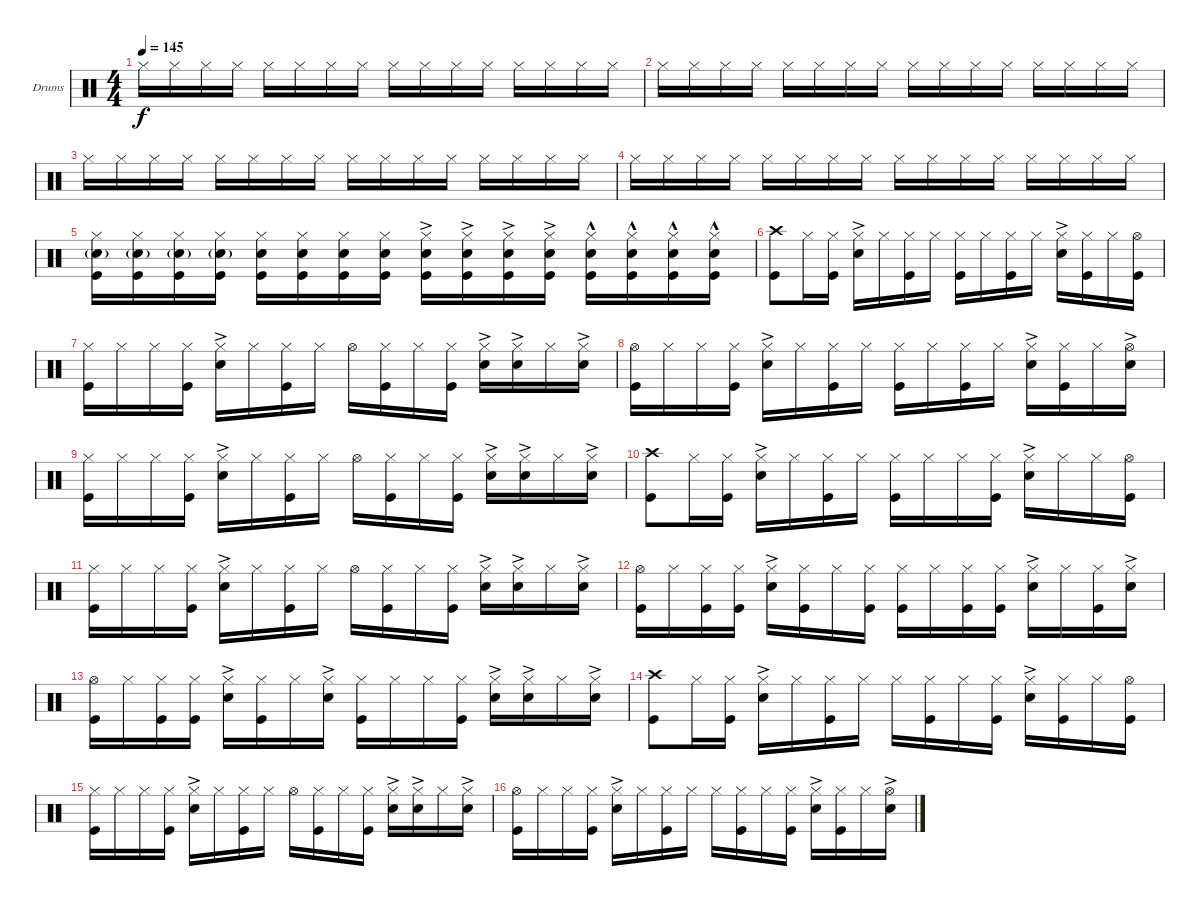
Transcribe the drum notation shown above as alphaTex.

\defaultSystemsLayout 4
\bracketExtendMode groupsimilarinstruments
\firstSystemTrackNameOrientation horizontal
\otherSystemsTrackNameOrientation horizontal
\track ("Drumkit" "Drums") {instrument percussion}
\staff {score}
\articulation defaults
\ts (4 4)
\tempo 145
\clef neutral
\ks c "Hi-Hat (closed)".16{dy f} "Hi-Hat (closed)".16 "Hi-Hat (closed)".16 "Hi-Hat (closed)".16 "Hi-Hat (closed)".16 "Hi-Hat (closed)".16 "Hi-Hat (closed)".16 "Hi-Hat (closed)".16 "Hi-Hat (closed)".16 "Hi-Hat (closed)".16 "Hi-Hat (closed)".16 "Hi-Hat (closed)".16 "Hi-Hat (closed)".16 "Hi-Hat (closed)".16 "Hi-Hat (closed)".16 "Hi-Hat (closed)".16
|
"Hi-Hat (closed)".16 "Hi-Hat (closed)".16 "Hi-Hat (closed)".16 "Hi-Hat (closed)".16 "Hi-Hat (closed)".16 "Hi-Hat (closed)".16 "Hi-Hat (closed)".16 "Hi-Hat (closed)".16 "Hi-Hat (closed)".16 "Hi-Hat (closed)".16 "Hi-Hat (closed)".16 "Hi-Hat (closed)".16 "Hi-Hat (closed)".16 "Hi-Hat (closed)".16 "Hi-Hat (closed)".16 "Hi-Hat (closed)".16 |
"Hi-Hat (closed)".16 "Hi-Hat (closed)".16 "Hi-Hat (closed)".16 "Hi-Hat (closed)".16 "Hi-Hat (closed)".16 "Hi-Hat (closed)".16 "Hi-Hat (closed)".16 "Hi-Hat (closed)".16 "Hi-Hat (closed)".16 "Hi-Hat (closed)".16 "Hi-Hat (closed)".16 "Hi-Hat (closed)".16 "Hi-Hat (closed)".16 "Hi-Hat (closed)".16 "Hi-Hat (closed)".16 "Hi-Hat (closed)".16 |
"Hi-Hat (closed)".16 "Hi-Hat (closed)".16 "Hi-Hat (closed)".16 "Hi-Hat (closed)".16 "Hi-Hat (closed)".16 "Hi-Hat (closed)".16 "Hi-Hat (closed)".16 "Hi-Hat (closed)".16 "Hi-Hat (closed)".16 "Hi-Hat (closed)".16 "Hi-Hat (closed)".16 "Hi-Hat (closed)".16 "Hi-Hat (closed)".16 "Hi-Hat (closed)".16 "Hi-Hat (closed)".16 "Hi-Hat (closed)".16 |
("Hi-Hat (closed)" "Kick (hit)" "Snare (hit) 2"{g}).16 ("Hi-Hat (closed)" "Kick (hit)" "Snare (hit) 2"{g}).16 ("Hi-Hat (closed)" "Kick (hit)" "Snare (hit) 2"{g}).16 ("Hi-Hat (closed)" "Kick (hit)" "Snare (hit) 2"{g}).16 ("Hi-Hat (closed)" "Kick (hit)" "Snare (hit) 2").16 ("Hi-Hat (closed)" "Kick (hit)" "Snare (hit) 2").16 ("Hi-Hat (closed)" "Kick (hit)" "Snare (hit) 2").16 ("Hi-Hat (closed)" "Kick (hit)" "Snare (hit) 2").16 ("Hi-Hat (closed)" "Kick (hit)" "Snare (hit) 2"{ac}).16 ("Hi-Hat (closed)" "Kick (hit)" "Snare (hit) 2"{ac}).16 ("Hi-Hat (closed)" "Kick (hit)" "Snare (hit) 2"{ac}).16 ("Hi-Hat (closed)" "Kick (hit)" "Snare (hit) 2"{ac}).16 ("Hi-Hat (closed)" "Kick (hit)" "Snare (hit) 2"{hac}).16 ("Hi-Hat (closed)" "Kick (hit)" "Snare (hit) 2"{hac}).16 ("Hi-Hat (closed)" "Kick (hit)" "Snare (hit) 2"{hac}).16 ("Hi-Hat (closed)" "Kick (hit)" "Snare (hit) 2"{hac}).16 |
("Kick (hit)" "Crash high (hit)").8 "Hi-Hat (closed)".16 ("Kick (hit)" "Hi-Hat (closed)").16 ("Snare (hit) 2"{ac} "Hi-Hat (closed)").16 "Hi-Hat (closed)".16 ("Hi-Hat (closed)" "Kick (hit)").16 "Hi-Hat (closed)".16 ("Hi-Hat (closed)" "Kick (hit)").16 "Hi-Hat (closed)".16 ("Hi-Hat (closed)" "Kick (hit)").16 "Hi-Hat (closed)".16 ("Hi-Hat (closed)" "Snare (hit) 2"{ac}).16 ("Hi-Hat (closed)" "Kick (hit)").16 "Hi-Hat (closed)".16 ("Hi-Hat (open)" "Kick (hit)").16 |
("Kick (hit)" "Hi-Hat (closed)").16 "Hi-Hat (closed)".16 "Hi-Hat (closed)".16 ("Kick (hit)" "Hi-Hat (closed)").16 ("Snare (hit) 2"{ac} "Hi-Hat (closed)").16 "Hi-Hat (closed)".16 ("Hi-Hat (closed)" "Kick (hit)").16 "Hi-Hat (closed)".16 "Hi-Hat (open)".16 ("Hi-Hat (closed)" "Kick (hit)").16 "Hi-Hat (closed)".16 ("Hi-Hat (closed)" "Kick (hit)").16 ("Hi-Hat (closed)" "Snare (hit) 2"{ac}).16 ("Hi-Hat (closed)" "Snare (hit) 2"{ac}).16 "Hi-Hat (closed)".16 ("Hi-Hat (closed)" "Snare (hit) 2"{ac}).16 |
("Kick (hit)" "Hi-Hat (open)").16 "Hi-Hat (closed)".16 "Hi-Hat (closed)".16 ("Kick (hit)" "Hi-Hat (closed)").16 ("Snare (hit) 2"{ac} "Hi-Hat (closed)").16 "Hi-Hat (closed)".16 ("Hi-Hat (closed)" "Kick (hit)").16 "Hi-Hat (closed)".16 ("Hi-Hat (closed)" "Kick (hit)").16 "Hi-Hat (closed)".16 ("Hi-Hat (closed)" "Kick (hit)").16 "Hi-Hat (closed)".16 ("Hi-Hat (closed)" "Snare (hit) 2"{ac}).16 ("Hi-Hat (closed)" "Kick (hit)").16 "Hi-Hat (closed)".16 ("Hi-Hat (open)" "Snare (hit) 2"{ac}).16 |
("Kick (hit)" "Hi-Hat (closed)").16 "Hi-Hat (closed)".16 "Hi-Hat (closed)".16 ("Kick (hit)" "Hi-Hat (closed)").16 ("Snare (hit) 2"{ac} "Hi-Hat (closed)").16 "Hi-Hat (closed)".16 ("Hi-Hat (closed)" "Kick (hit)").16 "Hi-Hat (closed)".16 "Hi-Hat (open)".16 ("Hi-Hat (closed)" "Kick (hit)").16 "Hi-Hat (closed)".16 ("Hi-Hat (closed)" "Kick (hit)").16 ("Hi-Hat (closed)" "Snare (hit) 2"{ac}).16 ("Hi-Hat (closed)" "Snare (hit) 2"{ac}).16 "Hi-Hat (closed)".16 ("Hi-Hat (closed)" "Snare (hit) 2"{ac}).16 |
("Kick (hit)" "Crash high (hit)").8 "Hi-Hat (closed)".16 ("Kick (hit)" "Hi-Hat (closed)").16 ("Snare (hit) 2"{ac} "Hi-Hat (closed)").16 "Hi-Hat (closed)".16 ("Hi-Hat (closed)" "Kick (hit)").16 "Hi-Hat (closed)".16 ("Hi-Hat (closed)" "Kick (hit)").16 "Hi-Hat (closed)".16 "Hi-Hat (closed)".16 ("Kick (hit)" "Hi-Hat (closed)").16 ("Hi-Hat (closed)" "Snare (hit) 2"{ac}).16 "Hi-Hat (closed)".16 "Hi-Hat (closed)".16 ("Hi-Hat (open)" "Kick (hit)").16 |
("Kick (hit)" "Hi-Hat (closed)").16 "Hi-Hat (closed)".16 "Hi-Hat (closed)".16 ("Kick (hit)" "Hi-Hat (closed)").16 ("Snare (hit) 2"{ac} "Hi-Hat (closed)").16 "Hi-Hat (closed)".16 ("Hi-Hat (closed)" "Kick (hit)").16 "Hi-Hat (closed)".16 "Hi-Hat (open)".16 ("Hi-Hat (closed)" "Kick (hit)").16 "Hi-Hat (closed)".16 ("Hi-Hat (closed)" "Kick (hit)").16 ("Hi-Hat (closed)" "Snare (hit) 2"{ac}).16 ("Hi-Hat (closed)" "Snare (hit) 2"{ac}).16 "Hi-Hat (closed)".16 ("Hi-Hat (closed)" "Snare (hit) 2"{ac}).16 |
("Kick (hit)" "Hi-Hat (open)").16 "Hi-Hat (closed)".16 ("Hi-Hat (closed)" "Kick (hit)").16 ("Hi-Hat (closed)" "Kick (hit)").16 ("Snare (hit) 2"{ac} "Hi-Hat (closed)").16 ("Hi-Hat (closed)" "Kick (hit)").16 "Hi-Hat (closed)".16 ("Hi-Hat (closed)" "Kick (hit)").16 ("Hi-Hat (closed)" "Kick (hit)").16 "Hi-Hat (closed)".16 ("Hi-Hat (closed)" "Kick (hit)").16 ("Kick (hit)" "Hi-Hat (closed)").16 ("Hi-Hat (closed)" "Snare (hit) 2"{ac}).16 "Hi-Hat (closed)".16 ("Hi-Hat (closed)" "Kick (hit)").16 ("Hi-Hat (closed)" "Snare (hit) 2"{ac}).16 |
("Kick (hit)" "Hi-Hat (open)").16 "Hi-Hat (closed)".16 ("Hi-Hat (closed)" "Kick (hit)").16 ("Kick (hit)" "Hi-Hat (closed)").16 ("Snare (hit) 2"{ac} "Hi-Hat (closed)").16 ("Hi-Hat (closed)" "Kick (hit)").16 "Hi-Hat (closed)".16 ("Hi-Hat (closed)" "Snare (hit) 2"{ac}).16 ("Hi-Hat (closed)" "Kick (hit)").16 "Hi-Hat (closed)".16 "Hi-Hat (closed)".16 ("Kick (hit)" "Hi-Hat (closed)").16 ("Hi-Hat (closed)" "Snare (hit) 2"{ac}).16 ("Hi-Hat (closed)" "Snare (hit) 2"{ac}).16 "Hi-Hat (closed)".16 ("Hi-Hat (closed)" "Snare (hit) 2"{ac}).16 |
("Kick (hit)" "Crash high (hit)").8 "Hi-Hat (closed)".16 ("Kick (hit)" "Hi-Hat (closed)").16 ("Snare (hit) 2"{ac} "Hi-Hat (closed)").16 "Hi-Hat (closed)".16 ("Hi-Hat (closed)" "Kick (hit)").16 "Hi-Hat (closed)".16 "Hi-Hat (closed)".16 ("Hi-Hat (closed)" "Kick (hit)").16 "Hi-Hat (closed)".16 ("Kick (hit)" "Hi-Hat (closed)").16 ("Hi-Hat (closed)" "Snare (hit) 2"{ac}).16 ("Hi-Hat (closed)" "Kick (hit)").16 "Hi-Hat (closed)".16 ("Hi-Hat (open)" "Kick (hit)").16 |
("Kick (hit)" "Hi-Hat (closed)").16 "Hi-Hat (closed)".16 "Hi-Hat (closed)".16 ("Kick (hit)" "Hi-Hat (closed)").16 ("Snare (hit) 2"{ac} "Hi-Hat (closed)").16 "Hi-Hat (closed)".16 ("Hi-Hat (closed)" "Kick (hit)").16 "Hi-Hat (closed)".16 "Hi-Hat (open)".16 ("Hi-Hat (closed)" "Kick (hit)").16 "Hi-Hat (closed)".16 ("Hi-Hat (closed)" "Kick (hit)").16 ("Hi-Hat (closed)" "Snare (hit) 2"{ac}).16 ("Hi-Hat (closed)" "Snare (hit) 2"{ac}).16 "Hi-Hat (closed)".16 ("Hi-Hat (closed)" "Snare (hit) 2"{ac}).16 |
("Kick (hit)" "Hi-Hat (open)").16 "Hi-Hat (closed)".16 "Hi-Hat (closed)".16 ("Kick (hit)" "Hi-Hat (closed)").16 ("Snare (hit) 2"{ac} "Hi-Hat (closed)").16 "Hi-Hat (closed)".16 ("Hi-Hat (closed)" "Kick (hit)").16 "Hi-Hat (closed)".16 "Hi-Hat (closed)".16 ("Hi-Hat (closed)" "Kick (hit)").16 "Hi-Hat (closed)".16 ("Kick (hit)" "Hi-Hat (closed)").16 ("Hi-Hat (closed)" "Snare (hit) 2"{ac}).16 ("Hi-Hat (closed)" "Kick (hit)").16 "Hi-Hat (closed)".16 ("Hi-Hat (open)" "Snare (hit) 2"{ac}).16
